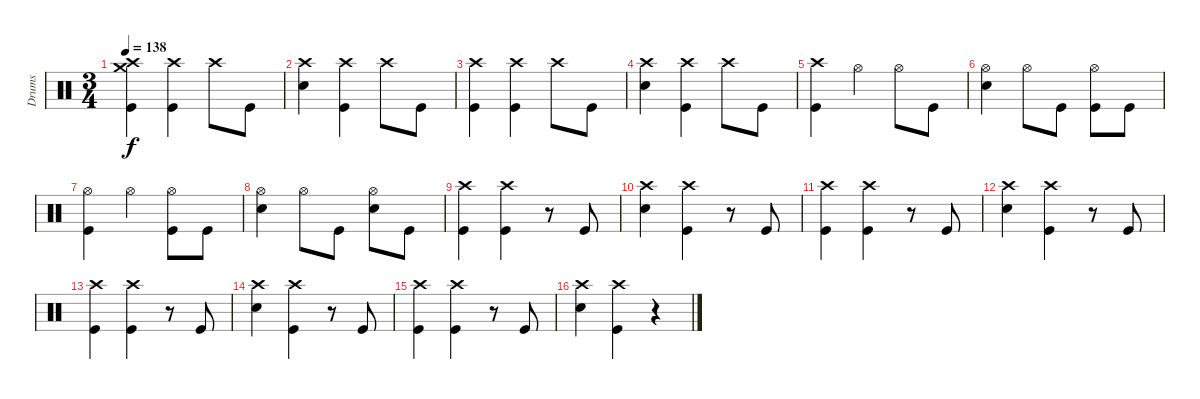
\track ("Drums" "Drums") {instrument percussion}
\staff {score}
\articulation defaults
\ts (3 4)
\tempo 138
\clef neutral
\ks c
("Crash medium (hit)" "Crash high (hit)" "Kick (hit)").4{dy f} ("Crash high (hit)" "Kick (hit)").4 "Crash high (hit)".8 "Kick (hit)".8 |
("Crash high (hit)" "Snare (hit) 2").4 ("Crash high (hit)" "Kick (hit)").4 "Crash high (hit)".8 "Kick (hit)".8 |
("Crash high (hit)" "Kick (hit)").4 ("Crash high (hit)" "Kick (hit)").4 "Crash high (hit)".8 "Kick (hit)".8 |
("Crash high (hit)" "Snare (hit) 2").4 ("Crash high (hit)" "Kick (hit)").4 "Crash high (hit)".8 "Kick (hit)".8 |
("Crash high (hit)" "Kick (hit)").4 "Hi-Hat (open)".4 "Hi-Hat (open)".8 "Kick (hit)".8 |
("Hi-Hat (open)" "Snare (hit) 2").4 "Hi-Hat (open)".8 "Kick (hit)".8 ("Hi-Hat (open)" "Kick (hit)").8 "Kick (hit)".8 |
("Hi-Hat (open)" "Kick (hit)").4 "Hi-Hat (open)".4 ("Hi-Hat (open)" "Kick (hit)").8 "Kick (hit)".8 |
("Hi-Hat (open)" "Snare (hit) 2").4 "Hi-Hat (open)".8 "Kick (hit)".8 ("Hi-Hat (open)" "Snare (hit) 2").8 "Kick (hit)".8 |
("Crash high (hit)" "Kick (hit)").4 ("Crash high (hit)" "Kick (hit)").4 r.8 "Kick (hit)".8 |
("Crash high (hit)" "Snare (hit) 2").4 ("Crash high (hit)" "Kick (hit)").4 r.8 "Kick (hit)".8 |
("Crash high (hit)" "Kick (hit)").4 ("Crash high (hit)" "Kick (hit)").4 r.8 "Kick (hit)".8 |
("Crash high (hit)" "Snare (hit) 2").4 ("Crash high (hit)" "Kick (hit)").4 r.8 "Kick (hit)".8 |
("Crash high (hit)" "Kick (hit)").4 ("Crash high (hit)" "Kick (hit)").4 r.8 "Kick (hit)".8 |
("Crash high (hit)" "Snare (hit) 2").4 ("Crash high (hit)" "Kick (hit)").4 r.8 "Kick (hit)".8 |
("Crash high (hit)" "Kick (hit)").4 ("Crash high (hit)" "Kick (hit)").4 r.8 "Kick (hit)".8 |
("Crash high (hit)" "Snare (hit) 2").4 ("Crash high (hit)" "Kick (hit)").4 r.4
